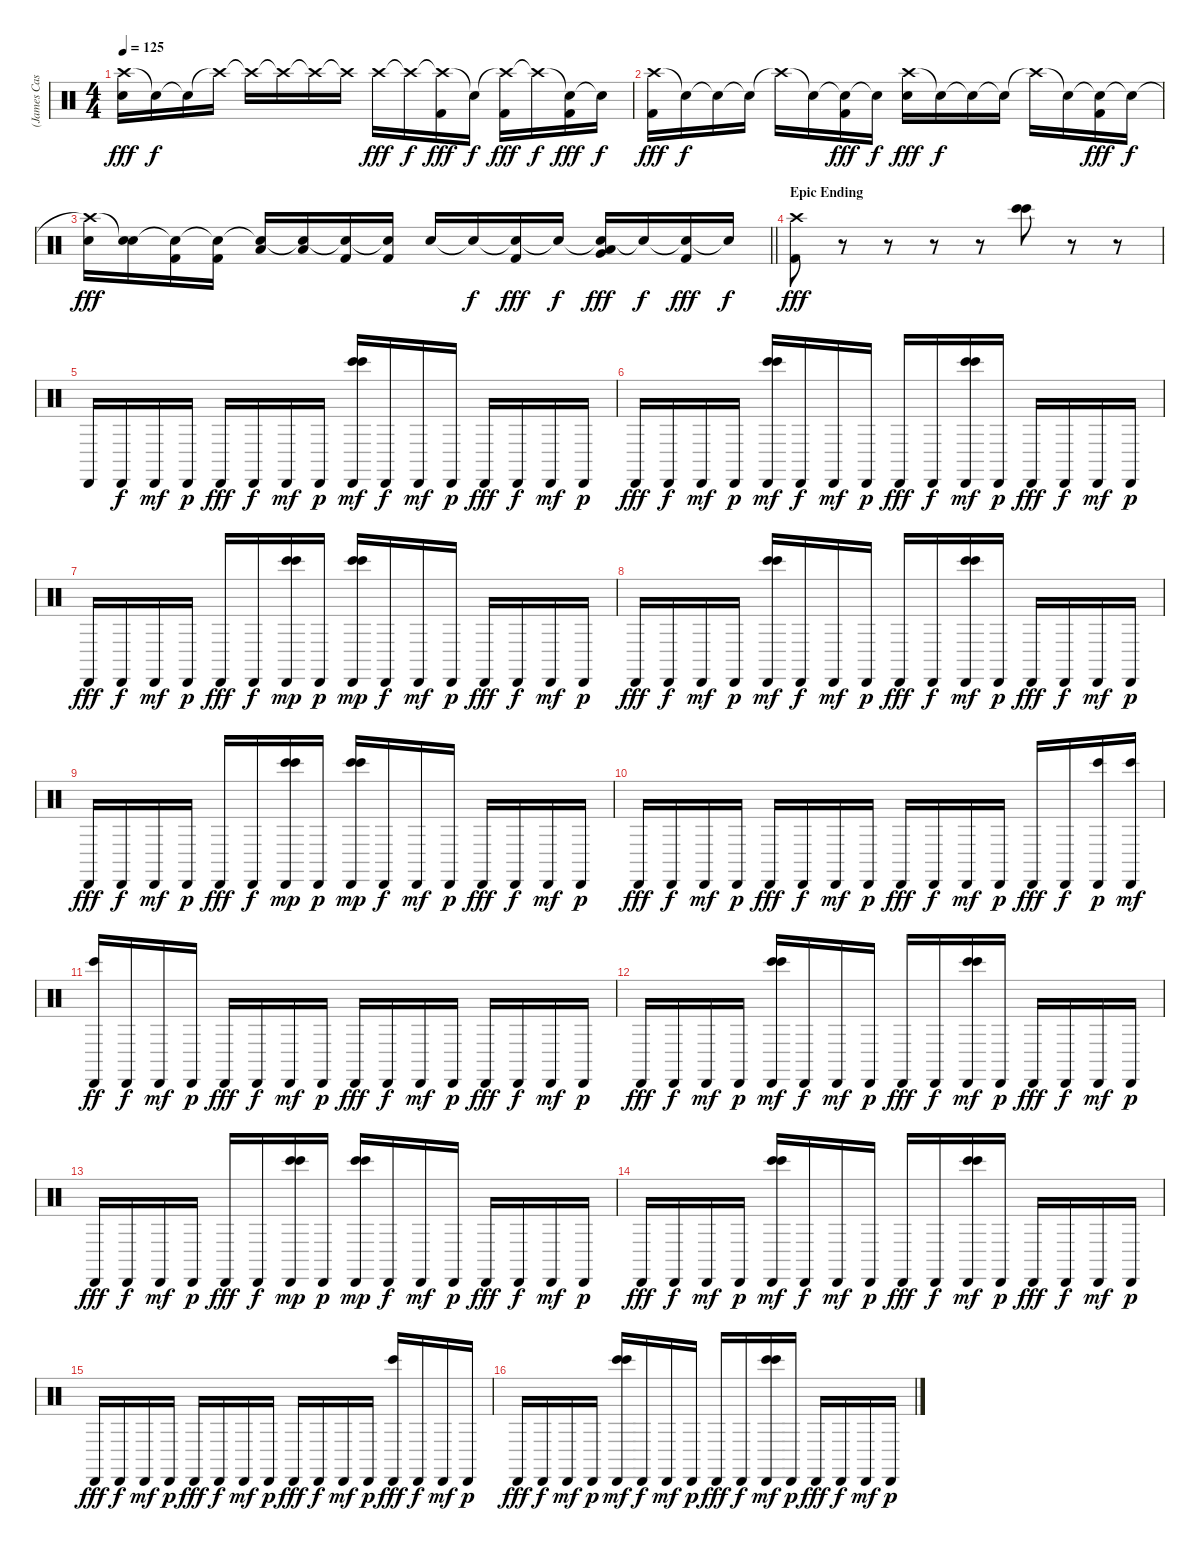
\track ("(James Cassells) Drums" "(James Cas") {instrument percussion}
\staff {score}
\articulation defaults
\ts (4 4)
\tempo 125
\clef neutral
\ks c
("Crash high (hit)" "Electric Snare (hit)").16{dy fff} "Snare (hit)"{t}.16{dy f} "Snare (hit)"{t}.16 "Crash high (hit)"{t}.16 "Crash high (hit)"{t}.16 "Crash high (hit)"{t}.16 "Crash high (hit)"{t}.16 "Crash high (hit)"{t}.16 "Crash high (hit)".16{dy fff} "Crash high (hit)"{t}.16{dy f} ("Crash high (hit)"{t} "Kick (hit) 2").16{dy fff} "Snare (hit)"{t}.16{dy f} ("Crash high (hit)"{t} "Kick (hit) 2").16{dy fff} "Crash high (hit)"{t}.16{dy f} ("Snare (hit)"{t} "Kick (hit) 2").16{dy fff} "Snare (hit)"{t}.16{dy f} |
("Crash high (hit)" "Kick (hit) 2").16{dy fff} "Snare (hit)"{t}.16{dy f} "Snare (hit)"{t}.16 "Snare (hit)"{t}.16 "Crash high (hit)"{t}.16 "Snare (hit)"{t}.16 ("Snare (hit)"{t} "Kick (hit) 2").16{dy fff} "Snare (hit)"{t}.16{dy f} ("Crash high (hit)" "Electric Snare (hit)").16{dy fff} "Snare (hit)"{t}.16{dy f} "Snare (hit)"{t}.16 "Snare (hit)"{t}.16 "Crash high (hit)"{t}.16 "Snare (hit)"{t}.16 ("Snare (hit)"{t} "Kick (hit) 2").16{dy fff} "Snare (hit)"{t}.16{dy f} |
\barLineRight lightlight
("Crash high (hit)"{t} "Electric Snare (hit)").16{dy fff} ("Snare (hit)"{t} "Electric Snare (hit)").16 ("Snare (hit)"{t} "Kick (hit) 2").16 ("Snare (hit)"{t} "Kick (hit) 2").16 ("Snare (hit)"{t} "Low Floor Tom (hit)").16 ("Snare (hit)"{t} "Low Floor Tom (hit)").16 ("Snare (hit)"{t} "Kick (hit) 2").16 ("Snare (hit)"{t} "Kick (hit) 2").16 "Electric Snare (hit)".16 "Snare (hit)"{t}.16{dy f} ("Snare (hit)"{t} "Kick (hit) 2").16{dy fff} "Snare (hit)"{t}.16{dy f} ("Snare (hit)"{t} "Very Low Tom (hit)" "Low Floor Tom (hit)").16{dy fff} "Snare (hit)"{t}.16{dy f} ("Snare (hit)"{t} "Kick (hit) 2").16{dy fff} "Snare (hit)"{t}.16{dy f} |
\section ("" "Epic Ending")
("Crash high (hit)" "Kick (hit) 2").8{dy fff volume 0} r.8 r.8 r.8 r.8 ("Bongo High (hit)" "Bongo High (hit)").8{volume 13} r.8 r.8 |
"Cabasa (hit)".16 "Cabasa (hit)".16{dy f} "Cabasa (hit)".16{dy mf} "Cabasa (hit)".16{dy p} "Cabasa (hit)".16{dy fff} "Cabasa (hit)".16{dy f} "Cabasa (hit)".16{dy mf} "Cabasa (hit)".16{dy p} ("Cabasa (hit)" "Bongo High (hit)" "Bongo High (hit)").16{dy mf} "Cabasa (hit)".16{dy f} "Cabasa (hit)".16{dy mf} "Cabasa (hit)".16{dy p} "Cabasa (hit)".16{dy fff} "Cabasa (hit)".16{dy f} "Cabasa (hit)".16{dy mf} "Cabasa (hit)".16{dy p} |
"Cabasa (hit)".16{dy fff} "Cabasa (hit)".16{dy f} "Cabasa (hit)".16{dy mf} "Cabasa (hit)".16{dy p} ("Cabasa (hit)" "Bongo High (hit)" "Bongo High (hit)").16{dy mf} "Cabasa (hit)".16{dy f} "Cabasa (hit)".16{dy mf} "Cabasa (hit)".16{dy p} "Cabasa (hit)".16{dy fff} "Cabasa (hit)".16{dy f} ("Cabasa (hit)" "Bongo High (hit)" "Bongo High (hit)").16{dy mf} "Cabasa (hit)".16{dy p} "Cabasa (hit)".16{dy fff} "Cabasa (hit)".16{dy f} "Cabasa (hit)".16{dy mf} "Cabasa (hit)".16{dy p} |
"Cabasa (hit)".16{dy fff} "Cabasa (hit)".16{dy f} "Cabasa (hit)".16{dy mf} "Cabasa (hit)".16{dy p} "Cabasa (hit)".16{dy fff} "Cabasa (hit)".16{dy f} ("Cabasa (hit)" "Bongo High (hit)" "Bongo High (hit)").16{dy mp} "Cabasa (hit)".16{dy p} ("Cabasa (hit)" "Bongo High (hit)" "Bongo High (hit)").16{dy mp} "Cabasa (hit)".16{dy f} "Cabasa (hit)".16{dy mf} "Cabasa (hit)".16{dy p} "Cabasa (hit)".16{dy fff} "Cabasa (hit)".16{dy f} "Cabasa (hit)".16{dy mf} "Cabasa (hit)".16{dy p} |
"Cabasa (hit)".16{dy fff} "Cabasa (hit)".16{dy f} "Cabasa (hit)".16{dy mf} "Cabasa (hit)".16{dy p} ("Cabasa (hit)" "Bongo High (hit)" "Bongo High (hit)").16{dy mf} "Cabasa (hit)".16{dy f} "Cabasa (hit)".16{dy mf} "Cabasa (hit)".16{dy p} "Cabasa (hit)".16{dy fff} "Cabasa (hit)".16{dy f} ("Cabasa (hit)" "Bongo High (hit)" "Bongo High (hit)").16{dy mf} "Cabasa (hit)".16{dy p} "Cabasa (hit)".16{dy fff} "Cabasa (hit)".16{dy f} "Cabasa (hit)".16{dy mf} "Cabasa (hit)".16{dy p} |
"Cabasa (hit)".16{dy fff} "Cabasa (hit)".16{dy f} "Cabasa (hit)".16{dy mf} "Cabasa (hit)".16{dy p} "Cabasa (hit)".16{dy fff} "Cabasa (hit)".16{dy f} ("Cabasa (hit)" "Bongo High (hit)" "Bongo High (hit)").16{dy mp} "Cabasa (hit)".16{dy p} ("Cabasa (hit)" "Bongo High (hit)" "Bongo High (hit)").16{dy mp} "Cabasa (hit)".16{dy f} "Cabasa (hit)".16{dy mf} "Cabasa (hit)".16{dy p} "Cabasa (hit)".16{dy fff} "Cabasa (hit)".16{dy f} "Cabasa (hit)".16{dy mf} "Cabasa (hit)".16{dy p} |
"Cabasa (hit)".16{dy fff} "Cabasa (hit)".16{dy f} "Cabasa (hit)".16{dy mf} "Cabasa (hit)".16{dy p} "Cabasa (hit)".16{dy fff} "Cabasa (hit)".16{dy f} "Cabasa (hit)".16{dy mf} "Cabasa (hit)".16{dy p} "Cabasa (hit)".16{dy fff} "Cabasa (hit)".16{dy f} "Cabasa (hit)".16{dy mf} "Cabasa (hit)".16{dy p} "Cabasa (hit)".16{dy fff} "Cabasa (hit)".16{dy f} ("Cabasa (hit)" "Bongo High (hit)").16{dy p} ("Cabasa (hit)" "Bongo High (hit)").16{dy mf} |
("Cabasa (hit)" "Bongo High (hit)").16{dy ff} "Cabasa (hit)".16{dy f} "Cabasa (hit)".16{dy mf} "Cabasa (hit)".16{dy p} "Cabasa (hit)".16{dy fff} "Cabasa (hit)".16{dy f} "Cabasa (hit)".16{dy mf} "Cabasa (hit)".16{dy p} "Cabasa (hit)".16{dy fff} "Cabasa (hit)".16{dy f} "Cabasa (hit)".16{dy mf} "Cabasa (hit)".16{dy p} "Cabasa (hit)".16{dy fff} "Cabasa (hit)".16{dy f} "Cabasa (hit)".16{dy mf} "Cabasa (hit)".16{dy p} |
"Cabasa (hit)".16{dy fff} "Cabasa (hit)".16{dy f} "Cabasa (hit)".16{dy mf} "Cabasa (hit)".16{dy p} ("Cabasa (hit)" "Bongo High (hit)" "Bongo High (hit)").16{dy mf} "Cabasa (hit)".16{dy f} "Cabasa (hit)".16{dy mf} "Cabasa (hit)".16{dy p} "Cabasa (hit)".16{dy fff} "Cabasa (hit)".16{dy f} ("Cabasa (hit)" "Bongo High (hit)" "Bongo High (hit)").16{dy mf} "Cabasa (hit)".16{dy p} "Cabasa (hit)".16{dy fff} "Cabasa (hit)".16{dy f} "Cabasa (hit)".16{dy mf} "Cabasa (hit)".16{dy p} |
"Cabasa (hit)".16{dy fff} "Cabasa (hit)".16{dy f} "Cabasa (hit)".16{dy mf} "Cabasa (hit)".16{dy p} "Cabasa (hit)".16{dy fff} "Cabasa (hit)".16{dy f} ("Cabasa (hit)" "Bongo High (hit)" "Bongo High (hit)").16{dy mp} "Cabasa (hit)".16{dy p} ("Cabasa (hit)" "Bongo High (hit)" "Bongo High (hit)").16{dy mp} "Cabasa (hit)".16{dy f} "Cabasa (hit)".16{dy mf} "Cabasa (hit)".16{dy p} "Cabasa (hit)".16{dy fff} "Cabasa (hit)".16{dy f} "Cabasa (hit)".16{dy mf} "Cabasa (hit)".16{dy p} |
"Cabasa (hit)".16{dy fff} "Cabasa (hit)".16{dy f} "Cabasa (hit)".16{dy mf} "Cabasa (hit)".16{dy p} ("Cabasa (hit)" "Bongo High (hit)" "Bongo High (hit)").16{dy mf} "Cabasa (hit)".16{dy f} "Cabasa (hit)".16{dy mf} "Cabasa (hit)".16{dy p} "Cabasa (hit)".16{dy fff} "Cabasa (hit)".16{dy f} ("Cabasa (hit)" "Bongo High (hit)" "Bongo High (hit)").16{dy mf} "Cabasa (hit)".16{dy p} "Cabasa (hit)".16{dy fff} "Cabasa (hit)".16{dy f} "Cabasa (hit)".16{dy mf} "Cabasa (hit)".16{dy p} |
"Cabasa (hit)".16{dy fff} "Cabasa (hit)".16{dy f} "Cabasa (hit)".16{dy mf} "Cabasa (hit)".16{dy p} "Cabasa (hit)".16{dy fff} "Cabasa (hit)".16{dy f} "Cabasa (hit)".16{dy mf} "Cabasa (hit)".16{dy p} "Cabasa (hit)".16{dy fff} "Cabasa (hit)".16{dy f} "Cabasa (hit)".16{dy mf} "Cabasa (hit)".16{dy p} ("Cabasa (hit)" "Bongo High (hit)").16{dy fff} "Cabasa (hit)".16{dy f} "Cabasa (hit)".16{dy mf} "Cabasa (hit)".16{dy p} |
"Cabasa (hit)".16{dy fff} "Cabasa (hit)".16{dy f} "Cabasa (hit)".16{dy mf} "Cabasa (hit)".16{dy p} ("Cabasa (hit)" "Bongo High (hit)" "Bongo High (hit)").16{dy mf} "Cabasa (hit)".16{dy f} "Cabasa (hit)".16{dy mf} "Cabasa (hit)".16{dy p} "Cabasa (hit)".16{dy fff} "Cabasa (hit)".16{dy f} ("Cabasa (hit)" "Bongo High (hit)" "Bongo High (hit)").16{dy mf} "Cabasa (hit)".16{dy p} "Cabasa (hit)".16{dy fff} "Cabasa (hit)".16{dy f} "Cabasa (hit)".16{dy mf} "Cabasa (hit)".16{dy p}
